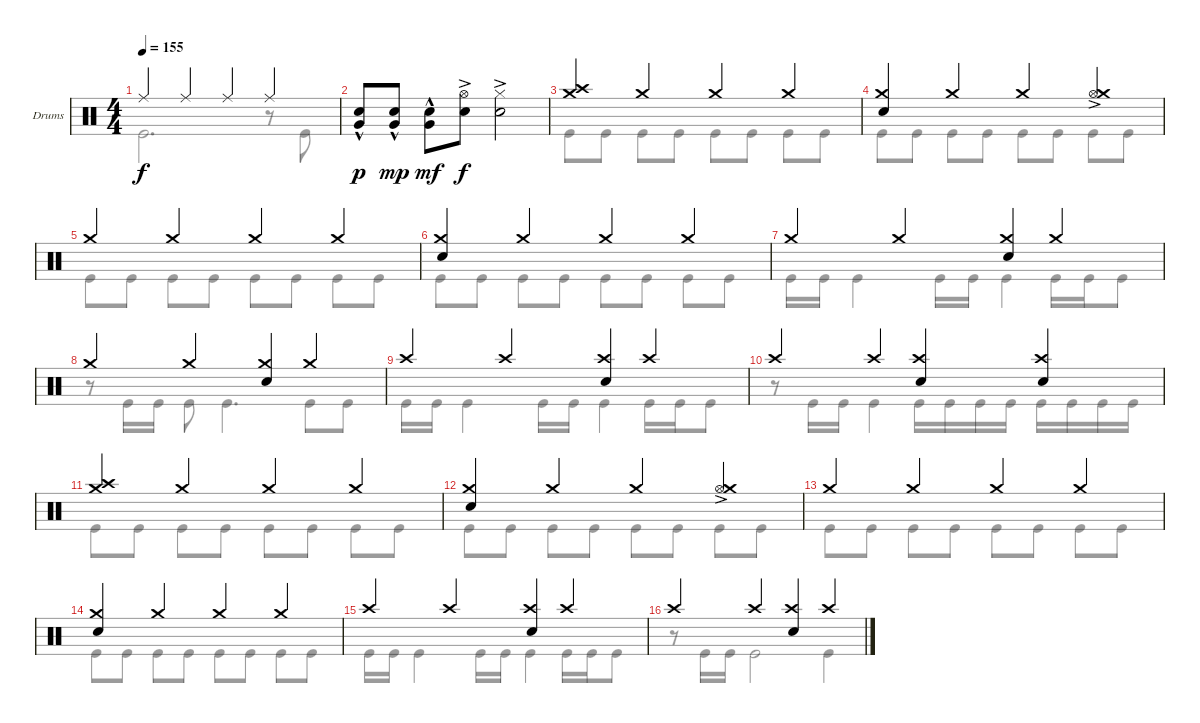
\defaultSystemsLayout 4
\bracketExtendMode groupsimilarinstruments
\firstSystemTrackNameOrientation horizontal
\otherSystemsTrackNameOrientation horizontal
\track ("Drumkit" "Drums") {instrument percussion}
\staff {score}
\articulation defaults
\voice
\ts (4 4)
\tempo 155
\clef neutral
\scale
1.02648
\ks c "Ride (middle)".4{dy f} "Ride (middle)".4 "Ride (middle)".4 "Ride (middle)".4
|
\scale
0.973518 ("Snare (hit) 2" "Very Low Tom (hit)"{hac}).8{dy p} ("Snare (hit) 2" "Very Low Tom (hit)"{hac}).8{dy mp} ("Snare (hit) 2" "Very Low Tom (hit)"{hac}).8{dy mf} ("Snare (hit) 2" "Hi-Hat (open)"{ac}).8{dy f} ("Snare (hit) 2"{ac} "Hi-Hat (closed)").2 |
\scale
1.02648 ("Crash medium (hit)" "Crash high (hit)").4 "Crash medium (hit)".4 "Crash medium (hit)".4 "Crash medium (hit)".4 |
\scale
0.973518 ("Crash medium (hit)" "Snare (hit) 2").4 "Crash medium (hit)".4 "Crash medium (hit)".4 ("Hi-Hat (open)"{ac} "Crash medium (hit)").4 |
\scale
1.02648 "Crash medium (hit)".4 "Crash medium (hit)".4 "Crash medium (hit)".4 "Crash medium (hit)".4 |
\scale
0.973518 ("Crash medium (hit)" "Snare (hit) 2").4 "Crash medium (hit)".4 "Crash medium (hit)".4 "Crash medium (hit)".4 |
\scale
1.02648 "Crash medium (hit)".4 "Crash medium (hit)".4 ("Crash medium (hit)" "Snare (hit) 2").4 "Crash medium (hit)".4 |
\scale
0.973518 "Crash medium (hit)".4 "Crash medium (hit)".4 ("Crash medium (hit)" "Snare (hit) 2").4 "Crash medium (hit)".4 |
\scale
1.02648 "Crash high (hit)".4 "Crash high (hit)".4 ("Crash high (hit)" "Snare (hit) 2").4 "Crash high (hit)".4 |
\scale
0.973518 "Crash high (hit)".4 "Crash high (hit)".4 ("Crash high (hit)" "Snare (hit) 2").4 ("Crash high (hit)" "Snare (hit) 2").4 |
\scale
1.02648 ("Crash medium (hit)" "Crash high (hit)").4 "Crash medium (hit)".4 "Crash medium (hit)".4 "Crash medium (hit)".4 |
\scale
0.973518 ("Crash medium (hit)" "Snare (hit) 2").4 "Crash medium (hit)".4 "Crash medium (hit)".4 ("Hi-Hat (open)"{ac} "Crash medium (hit)").4 |
\scale
1.02648 "Crash medium (hit)".4 "Crash medium (hit)".4 "Crash medium (hit)".4 "Crash medium (hit)".4 |
\scale
0.973518 ("Crash medium (hit)" "Snare (hit) 2").4 "Crash medium (hit)".4 "Crash medium (hit)".4 "Crash medium (hit)".4 |
\scale
1.02648 "Crash high (hit)".4 "Crash high (hit)".4 ("Snare (hit) 2" "Crash high (hit)").4 "Crash high (hit)".4 |
\scale
0.973518 "Crash high (hit)".4 "Crash high (hit)".4 ("Snare (hit) 2" "Crash high (hit)").4 "Crash high (hit)".4
\voice
\clef neutral
\ottava regular
\simile none
\scale
1.02648
\ks c "Kick (hit)".2{d dy f}
r.8 "Kick (hit)".8 |
\scale
0.973518 |
\scale
1.02648 "Kick (hit)".8 "Kick (hit)".8 "Kick (hit)".8 "Kick (hit)".8 "Kick (hit)".8 "Kick (hit)".8 "Kick (hit)".8 "Kick (hit)".8 |
\scale
0.973518 "Kick (hit)".8 "Kick (hit)".8 "Kick (hit)".8 "Kick (hit)".8 "Kick (hit)".8 "Kick (hit)".8 "Kick (hit)".8 "Kick (hit)".8 |
\scale
1.02648 "Kick (hit)".8 "Kick (hit)".8 "Kick (hit)".8 "Kick (hit)".8 "Kick (hit)".8 "Kick (hit)".8 "Kick (hit)".8 "Kick (hit)".8 |
\scale
0.973518 "Kick (hit)".8 "Kick (hit)".8 "Kick (hit)".8 "Kick (hit)".8 "Kick (hit)".8 "Kick (hit)".8 "Kick (hit)".8 "Kick (hit)".8 |
\scale
1.02648 "Kick (hit)".16 "Kick (hit)".16 "Kick (hit)".4 "Kick (hit)".16 "Kick (hit)".16 "Kick (hit)".4 "Kick (hit)".16 "Kick (hit)".16 "Kick (hit)".8 |
\scale
0.973518 r.8 "Kick (hit)".16 "Kick (hit)".16 "Kick (hit)".8 "Kick (hit)".4{d} "Kick (hit)".8 "Kick (hit)".8 |
\scale
1.02648 "Kick (hit)".16 "Kick (hit)".16 "Kick (hit)".4 "Kick (hit)".16 "Kick (hit)".16 "Kick (hit)".4 "Kick (hit)".16 "Kick (hit)".16 "Kick (hit)".8 |
\scale
0.973518 r.8 "Kick (hit)".16 "Kick (hit)".16 "Kick (hit)".4 "Kick (hit)".16 "Kick (hit)".16 "Kick (hit)".16 "Kick (hit)".16 "Kick (hit)".16 "Kick (hit)".16 "Kick (hit)".16 "Kick (hit)".16 |
\scale
1.02648 "Kick (hit)".8 "Kick (hit)".8 "Kick (hit)".8 "Kick (hit)".8 "Kick (hit)".8 "Kick (hit)".8 "Kick (hit)".8 "Kick (hit)".8 |
\scale
0.973518 "Kick (hit)".8 "Kick (hit)".8 "Kick (hit)".8 "Kick (hit)".8 "Kick (hit)".8 "Kick (hit)".8 "Kick (hit)".8 "Kick (hit)".8 |
\scale
1.02648 "Kick (hit)".8 "Kick (hit)".8 "Kick (hit)".8 "Kick (hit)".8 "Kick (hit)".8 "Kick (hit)".8 "Kick (hit)".8 "Kick (hit)".8 |
\scale
0.973518 "Kick (hit)".8 "Kick (hit)".8 "Kick (hit)".8 "Kick (hit)".8 "Kick (hit)".8 "Kick (hit)".8 "Kick (hit)".8 "Kick (hit)".8 |
\scale
1.02648 "Kick (hit)".16 "Kick (hit)".16 "Kick (hit)".4 "Kick (hit)".16 "Kick (hit)".16 "Kick (hit)".4 "Kick (hit)".16 "Kick (hit)".16 "Kick (hit)".8 |
\scale
0.973518 r.8 "Kick (hit)".16 "Kick (hit)".16 "Kick (hit)".2 "Kick (hit)".4
